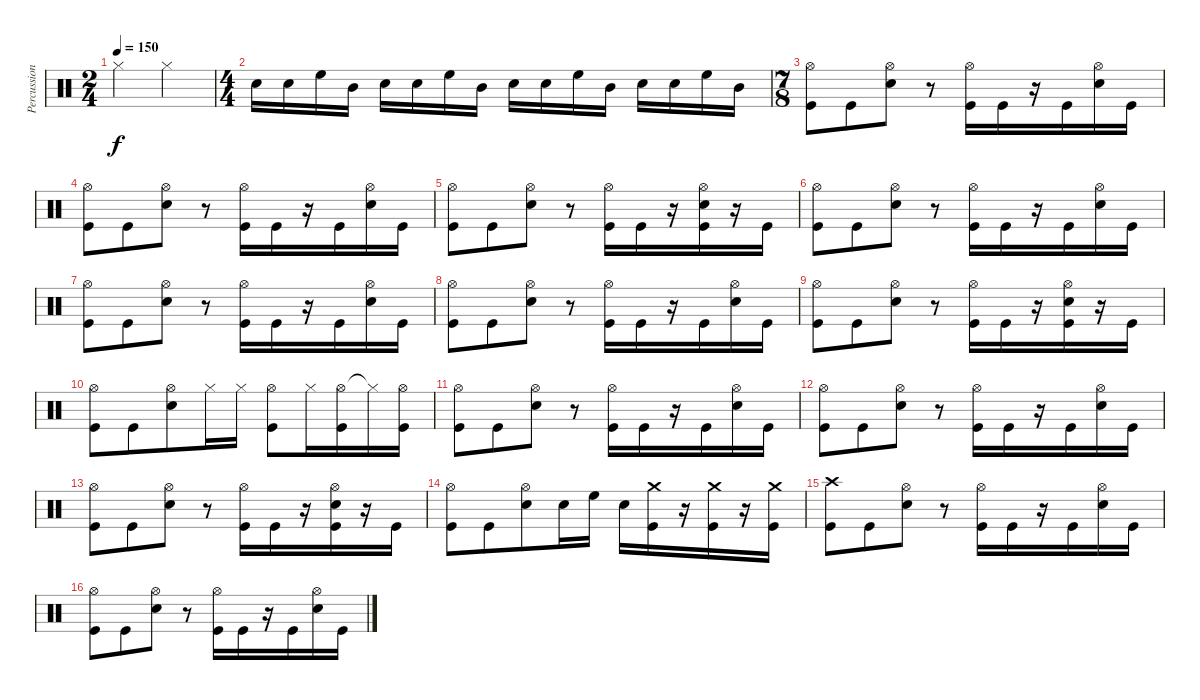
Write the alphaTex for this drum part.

\track ("Percussion" "Percussion") {instrument percussion}
\staff {score}
\articulation defaults
\ts (2 4)
\tempo 150
\clef neutral
\ks c "Hi-Hat (closed)".4{dy f} "Hi-Hat (closed)".4
|
\ts (4 4)
"Snare (hit) 2".16 "Snare (hit) 2".16 "High Floor Tom (hit)".16 "Mid Tom (hit)".16 "Snare (hit) 2".16 "Snare (hit) 2".16 "High Floor Tom (hit)".16 "Mid Tom (hit)".16 "Snare (hit) 2".16 "Snare (hit) 2".16 "High Floor Tom (hit)".16 "Mid Tom (hit)".16 "Snare (hit) 2".16 "Snare (hit) 2".16 "High Floor Tom (hit)".16 "Mid Tom (hit)".16 |
\ts (7 8)
("Hi-Hat (open)" "Kick (hit)").8 "Kick (hit)".8 ("Hi-Hat (open)" "Snare (hit) 2").8 r.8 ("Hi-Hat (open)" "Kick (hit)").16 "Kick (hit)".16 r.16 "Kick (hit)".16 ("Hi-Hat (open)" "Snare (hit) 2").16 "Kick (hit)".16 |
("Hi-Hat (open)" "Kick (hit)").8 "Kick (hit)".8 ("Hi-Hat (open)" "Snare (hit) 2").8 r.8 ("Hi-Hat (open)" "Kick (hit)").16 "Kick (hit)".16 r.16 "Kick (hit)".16 ("Hi-Hat (open)" "Snare (hit) 2").16 "Kick (hit)".16 |
("Hi-Hat (open)" "Kick (hit)").8 "Kick (hit)".8 ("Hi-Hat (open)" "Snare (hit) 2").8 r.8 ("Hi-Hat (open)" "Kick (hit)").16 "Kick (hit)".16 r.16 ("Hi-Hat (open)" "Snare (hit) 2" "Kick (hit)").16 r.16 "Kick (hit)".16 |
("Hi-Hat (open)" "Kick (hit)").8 "Kick (hit)".8 ("Hi-Hat (open)" "Snare (hit) 2").8 r.8 ("Hi-Hat (open)" "Kick (hit)").16 "Kick (hit)".16 r.16 "Kick (hit)".16 ("Hi-Hat (open)" "Snare (hit) 2").16 "Kick (hit)".16 |
("Hi-Hat (open)" "Kick (hit)").8 "Kick (hit)".8 ("Hi-Hat (open)" "Snare (hit) 2").8 r.8 ("Hi-Hat (open)" "Kick (hit)").16 "Kick (hit)".16 r.16 "Kick (hit)".16 ("Hi-Hat (open)" "Snare (hit) 2").16 "Kick (hit)".16 |
("Hi-Hat (open)" "Kick (hit)").8 "Kick (hit)".8 ("Hi-Hat (open)" "Snare (hit) 2").8 r.8 ("Hi-Hat (open)" "Kick (hit)").16 "Kick (hit)".16 r.16 "Kick (hit)".16 ("Hi-Hat (open)" "Snare (hit) 2").16 "Kick (hit)".16 |
("Hi-Hat (open)" "Kick (hit)").8 "Kick (hit)".8 ("Hi-Hat (open)" "Snare (hit) 2").8 r.8 ("Hi-Hat (open)" "Kick (hit)").16 "Kick (hit)".16 r.16 ("Hi-Hat (open)" "Snare (hit) 2" "Kick (hit)").16 r.16 "Kick (hit)".16 |
("Hi-Hat (open)" "Kick (hit)").8 "Kick (hit)".8 ("Hi-Hat (open)" "Snare (hit) 2").8 "Hi-Hat (closed)".16 "Hi-Hat (closed)".16 ("Hi-Hat (open)" "Kick (hit)").8 "Hi-Hat (closed)".16 ("Hi-Hat (open)" "Kick (hit)").16 "Hi-Hat (closed)"{t}.16 ("Hi-Hat (open)" "Kick (hit)").16 |
("Hi-Hat (open)" "Kick (hit)").8 "Kick (hit)".8 ("Hi-Hat (open)" "Snare (hit) 2").8 r.8 ("Hi-Hat (open)" "Kick (hit)").16 "Kick (hit)".16 r.16 "Kick (hit)".16 ("Hi-Hat (open)" "Snare (hit) 2").16 "Kick (hit)".16 |
("Hi-Hat (open)" "Kick (hit)").8 "Kick (hit)".8 ("Hi-Hat (open)" "Snare (hit) 2").8 r.8 ("Hi-Hat (open)" "Kick (hit)").16 "Kick (hit)".16 r.16 "Kick (hit)".16 ("Hi-Hat (open)" "Snare (hit) 2").16 "Kick (hit)".16 |
("Hi-Hat (open)" "Kick (hit)").8 "Kick (hit)".8 ("Hi-Hat (open)" "Snare (hit) 2").8 r.8 ("Hi-Hat (open)" "Kick (hit)").16 "Kick (hit)".16 r.16 ("Hi-Hat (open)" "Snare (hit) 2" "Kick (hit)").16 r.16 "Kick (hit)".16 |
("Hi-Hat (open)" "Kick (hit)").8 "Kick (hit)".8 ("Hi-Hat (open)" "Snare (hit) 2").8 "Snare (hit) 2".16 "High Floor Tom (hit)".16 "Snare (hit) 2".16 ("Crash medium (hit)" "Kick (hit)").16 r.16 ("Crash medium (hit)" "Kick (hit)").16 r.16 ("Crash medium (hit)" "Kick (hit)").16 |
("Crash high (hit)" "Kick (hit)").8 "Kick (hit)".8 ("Hi-Hat (open)" "Snare (hit) 2").8 r.8 ("Hi-Hat (open)" "Kick (hit)").16 "Kick (hit)".16 r.16 "Kick (hit)".16 ("Hi-Hat (open)" "Snare (hit) 2").16 "Kick (hit)".16 |
("Hi-Hat (open)" "Kick (hit)").8 "Kick (hit)".8 ("Hi-Hat (open)" "Snare (hit) 2").8 r.8 ("Hi-Hat (open)" "Kick (hit)").16 "Kick (hit)".16 r.16 "Kick (hit)".16 ("Hi-Hat (open)" "Snare (hit) 2").16 "Kick (hit)".16
